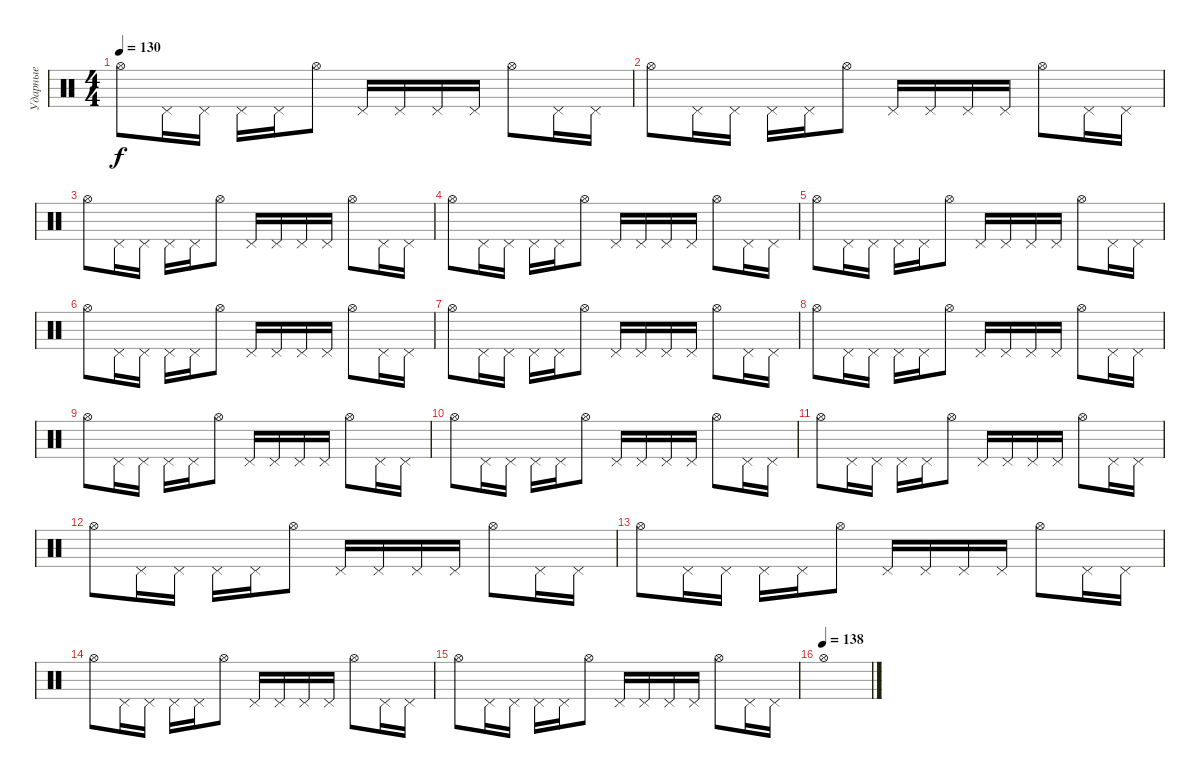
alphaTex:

\track ("Ударные" "Ударные") {instrument percussion}
\staff {score}
\articulation defaults
\ts (4 4)
\tempo 130
\clef neutral
\ks c "Hi-Hat (open)".8{dy f} "Pedal Hi-Hat (hit)".16 "Pedal Hi-Hat (hit)".16 "Pedal Hi-Hat (hit)".16 "Pedal Hi-Hat (hit)".16 "Hi-Hat (open)".8 "Pedal Hi-Hat (hit)".16 "Pedal Hi-Hat (hit)".16 "Pedal Hi-Hat (hit)".16 "Pedal Hi-Hat (hit)".16 "Hi-Hat (open)".8 "Pedal Hi-Hat (hit)".16 "Pedal Hi-Hat (hit)".16
|
"Hi-Hat (open)".8 "Pedal Hi-Hat (hit)".16 "Pedal Hi-Hat (hit)".16 "Pedal Hi-Hat (hit)".16 "Pedal Hi-Hat (hit)".16 "Hi-Hat (open)".8 "Pedal Hi-Hat (hit)".16 "Pedal Hi-Hat (hit)".16 "Pedal Hi-Hat (hit)".16 "Pedal Hi-Hat (hit)".16 "Hi-Hat (open)".8 "Pedal Hi-Hat (hit)".16 "Pedal Hi-Hat (hit)".16 |
"Hi-Hat (open)".8 "Pedal Hi-Hat (hit)".16 "Pedal Hi-Hat (hit)".16 "Pedal Hi-Hat (hit)".16 "Pedal Hi-Hat (hit)".16 "Hi-Hat (open)".8 "Pedal Hi-Hat (hit)".16 "Pedal Hi-Hat (hit)".16 "Pedal Hi-Hat (hit)".16 "Pedal Hi-Hat (hit)".16 "Hi-Hat (open)".8 "Pedal Hi-Hat (hit)".16 "Pedal Hi-Hat (hit)".16 |
"Hi-Hat (open)".8 "Pedal Hi-Hat (hit)".16 "Pedal Hi-Hat (hit)".16 "Pedal Hi-Hat (hit)".16 "Pedal Hi-Hat (hit)".16 "Hi-Hat (open)".8 "Pedal Hi-Hat (hit)".16 "Pedal Hi-Hat (hit)".16 "Pedal Hi-Hat (hit)".16 "Pedal Hi-Hat (hit)".16 "Hi-Hat (open)".8 "Pedal Hi-Hat (hit)".16 "Pedal Hi-Hat (hit)".16 |
"Hi-Hat (open)".8 "Pedal Hi-Hat (hit)".16 "Pedal Hi-Hat (hit)".16 "Pedal Hi-Hat (hit)".16 "Pedal Hi-Hat (hit)".16 "Hi-Hat (open)".8 "Pedal Hi-Hat (hit)".16 "Pedal Hi-Hat (hit)".16 "Pedal Hi-Hat (hit)".16 "Pedal Hi-Hat (hit)".16 "Hi-Hat (open)".8 "Pedal Hi-Hat (hit)".16 "Pedal Hi-Hat (hit)".16 |
"Hi-Hat (open)".8 "Pedal Hi-Hat (hit)".16 "Pedal Hi-Hat (hit)".16 "Pedal Hi-Hat (hit)".16 "Pedal Hi-Hat (hit)".16 "Hi-Hat (open)".8 "Pedal Hi-Hat (hit)".16 "Pedal Hi-Hat (hit)".16 "Pedal Hi-Hat (hit)".16 "Pedal Hi-Hat (hit)".16 "Hi-Hat (open)".8 "Pedal Hi-Hat (hit)".16 "Pedal Hi-Hat (hit)".16 |
"Hi-Hat (open)".8 "Pedal Hi-Hat (hit)".16 "Pedal Hi-Hat (hit)".16 "Pedal Hi-Hat (hit)".16 "Pedal Hi-Hat (hit)".16 "Hi-Hat (open)".8 "Pedal Hi-Hat (hit)".16 "Pedal Hi-Hat (hit)".16 "Pedal Hi-Hat (hit)".16 "Pedal Hi-Hat (hit)".16 "Hi-Hat (open)".8 "Pedal Hi-Hat (hit)".16 "Pedal Hi-Hat (hit)".16 |
"Hi-Hat (open)".8 "Pedal Hi-Hat (hit)".16 "Pedal Hi-Hat (hit)".16 "Pedal Hi-Hat (hit)".16 "Pedal Hi-Hat (hit)".16 "Hi-Hat (open)".8 "Pedal Hi-Hat (hit)".16 "Pedal Hi-Hat (hit)".16 "Pedal Hi-Hat (hit)".16 "Pedal Hi-Hat (hit)".16 "Hi-Hat (open)".8 "Pedal Hi-Hat (hit)".16 "Pedal Hi-Hat (hit)".16 |
"Hi-Hat (open)".8 "Pedal Hi-Hat (hit)".16 "Pedal Hi-Hat (hit)".16 "Pedal Hi-Hat (hit)".16 "Pedal Hi-Hat (hit)".16 "Hi-Hat (open)".8 "Pedal Hi-Hat (hit)".16 "Pedal Hi-Hat (hit)".16 "Pedal Hi-Hat (hit)".16 "Pedal Hi-Hat (hit)".16 "Hi-Hat (open)".8 "Pedal Hi-Hat (hit)".16 "Pedal Hi-Hat (hit)".16 |
"Hi-Hat (open)".8 "Pedal Hi-Hat (hit)".16 "Pedal Hi-Hat (hit)".16 "Pedal Hi-Hat (hit)".16 "Pedal Hi-Hat (hit)".16 "Hi-Hat (open)".8 "Pedal Hi-Hat (hit)".16 "Pedal Hi-Hat (hit)".16 "Pedal Hi-Hat (hit)".16 "Pedal Hi-Hat (hit)".16 "Hi-Hat (open)".8 "Pedal Hi-Hat (hit)".16 "Pedal Hi-Hat (hit)".16 |
"Hi-Hat (open)".8 "Pedal Hi-Hat (hit)".16 "Pedal Hi-Hat (hit)".16 "Pedal Hi-Hat (hit)".16 "Pedal Hi-Hat (hit)".16 "Hi-Hat (open)".8 "Pedal Hi-Hat (hit)".16 "Pedal Hi-Hat (hit)".16 "Pedal Hi-Hat (hit)".16 "Pedal Hi-Hat (hit)".16 "Hi-Hat (open)".8 "Pedal Hi-Hat (hit)".16 "Pedal Hi-Hat (hit)".16 |
"Hi-Hat (open)".8 "Pedal Hi-Hat (hit)".16 "Pedal Hi-Hat (hit)".16 "Pedal Hi-Hat (hit)".16 "Pedal Hi-Hat (hit)".16 "Hi-Hat (open)".8 "Pedal Hi-Hat (hit)".16 "Pedal Hi-Hat (hit)".16 "Pedal Hi-Hat (hit)".16 "Pedal Hi-Hat (hit)".16 "Hi-Hat (open)".8 "Pedal Hi-Hat (hit)".16 "Pedal Hi-Hat (hit)".16 |
"Hi-Hat (open)".8 "Pedal Hi-Hat (hit)".16 "Pedal Hi-Hat (hit)".16 "Pedal Hi-Hat (hit)".16 "Pedal Hi-Hat (hit)".16 "Hi-Hat (open)".8 "Pedal Hi-Hat (hit)".16 "Pedal Hi-Hat (hit)".16 "Pedal Hi-Hat (hit)".16 "Pedal Hi-Hat (hit)".16 "Hi-Hat (open)".8 "Pedal Hi-Hat (hit)".16 "Pedal Hi-Hat (hit)".16 |
"Hi-Hat (open)".8 "Pedal Hi-Hat (hit)".16 "Pedal Hi-Hat (hit)".16 "Pedal Hi-Hat (hit)".16 "Pedal Hi-Hat (hit)".16 "Hi-Hat (open)".8 "Pedal Hi-Hat (hit)".16 "Pedal Hi-Hat (hit)".16 "Pedal Hi-Hat (hit)".16 "Pedal Hi-Hat (hit)".16 "Hi-Hat (open)".8 "Pedal Hi-Hat (hit)".16 "Pedal Hi-Hat (hit)".16 |
"Hi-Hat (open)".8 "Pedal Hi-Hat (hit)".16 "Pedal Hi-Hat (hit)".16 "Pedal Hi-Hat (hit)".16 "Pedal Hi-Hat (hit)".16 "Hi-Hat (open)".8 "Pedal Hi-Hat (hit)".16 "Pedal Hi-Hat (hit)".16 "Pedal Hi-Hat (hit)".16 "Pedal Hi-Hat (hit)".16 "Hi-Hat (open)".8 "Pedal Hi-Hat (hit)".16 "Pedal Hi-Hat (hit)".16 |
\tempo (138)
"Hi-Hat (open)".1
